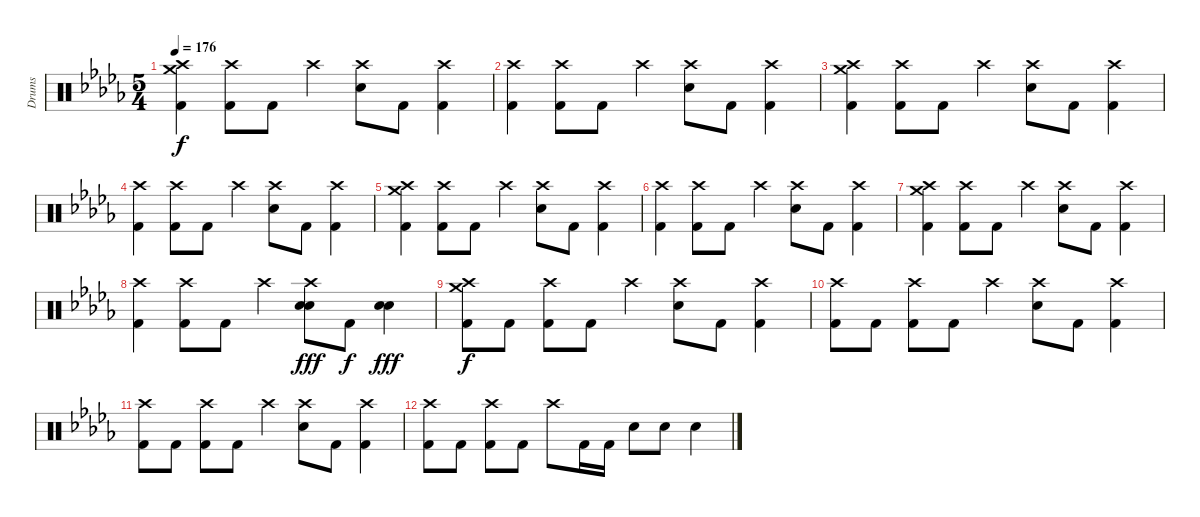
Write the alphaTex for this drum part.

\track ("Drums" "Drums") {instrument percussion}
\staff {score}
\articulation defaults
\ts (5 4)
\tempo 176
\clef neutral
\ks db
("Crash medium (hit)" "Crash high (hit)" "Kick (hit) 2").4{dy f} ("Crash high (hit)" "Kick (hit) 2").8 "Kick (hit) 2".8 "Crash high (hit)".4 ("Crash high (hit)" "Snare (hit) 2").8 "Kick (hit) 2".8 ("Crash high (hit)" "Kick (hit) 2").4 |
("Crash high (hit)" "Kick (hit) 2").4 ("Crash high (hit)" "Kick (hit) 2").8 "Kick (hit) 2".8 "Crash high (hit)".4 ("Crash high (hit)" "Snare (hit) 2").8 "Kick (hit) 2".8 ("Crash high (hit)" "Kick (hit) 2").4 |
("Crash medium (hit)" "Crash high (hit)" "Kick (hit) 2").4 ("Crash high (hit)" "Kick (hit) 2").8 "Kick (hit) 2".8 "Crash high (hit)".4 ("Crash high (hit)" "Snare (hit) 2").8 "Kick (hit) 2".8 ("Crash high (hit)" "Kick (hit) 2").4 |
("Crash high (hit)" "Kick (hit) 2").4 ("Crash high (hit)" "Kick (hit) 2").8 "Kick (hit) 2".8 "Crash high (hit)".4 ("Crash high (hit)" "Snare (hit) 2").8 "Kick (hit) 2".8 ("Crash high (hit)" "Kick (hit) 2").4 |
("Crash medium (hit)" "Crash high (hit)" "Kick (hit) 2").4 ("Crash high (hit)" "Kick (hit) 2").8 "Kick (hit) 2".8 "Crash high (hit)".4 ("Crash high (hit)" "Snare (hit) 2").8 "Kick (hit) 2".8 ("Crash high (hit)" "Kick (hit) 2").4 |
("Crash high (hit)" "Kick (hit) 2").4 ("Crash high (hit)" "Kick (hit) 2").8 "Kick (hit) 2".8 "Crash high (hit)".4 ("Crash high (hit)" "Snare (hit) 2").8 "Kick (hit) 2".8 ("Crash high (hit)" "Kick (hit) 2").4 |
("Crash medium (hit)" "Crash high (hit)" "Kick (hit) 2").4 ("Crash high (hit)" "Kick (hit) 2").8 "Kick (hit) 2".8 "Crash high (hit)".4 ("Crash high (hit)" "Snare (hit) 2").8 "Kick (hit) 2".8 ("Crash high (hit)" "Kick (hit) 2").4 |
("Crash high (hit)" "Kick (hit) 2").4 ("Crash high (hit)" "Kick (hit) 2").8 "Kick (hit) 2".8 "Crash high (hit)".4 ("Crash high (hit)" "Snare (hit) 2" "Electric Snare (hit)").8{dy fff} "Kick (hit) 2".8{dy f} ("Snare (hit) 2" "Electric Snare (hit)").4{dy fff} |
("Crash medium (hit)" "Crash high (hit)" "Kick (hit) 2").8{dy f} "Kick (hit) 2".8 ("Crash high (hit)" "Kick (hit) 2").8 "Kick (hit) 2".8 "Crash high (hit)".4 ("Crash high (hit)" "Snare (hit) 2").8 "Kick (hit) 2".8 ("Crash high (hit)" "Kick (hit) 2").4 |
("Crash high (hit)" "Kick (hit) 2").8 "Kick (hit) 2".8 ("Crash high (hit)" "Kick (hit) 2").8 "Kick (hit) 2".8 "Crash high (hit)".4 ("Crash high (hit)" "Snare (hit) 2").8 "Kick (hit) 2".8 ("Crash high (hit)" "Kick (hit) 2").4 |
("Crash high (hit)" "Kick (hit) 2").8 "Kick (hit) 2".8 ("Crash high (hit)" "Kick (hit) 2").8 "Kick (hit) 2".8 "Crash high (hit)".4 ("Crash high (hit)" "Snare (hit) 2").8 "Kick (hit) 2".8 ("Crash high (hit)" "Kick (hit) 2").4 |
("Crash high (hit)" "Kick (hit) 2").8 "Kick (hit) 2".8 ("Crash high (hit)" "Kick (hit) 2").8 "Kick (hit) 2".8 "Crash high (hit)".8 "Kick (hit) 2".16 "Kick (hit) 2".16 "Snare (hit) 2".8 "Snare (hit) 2".8 "Snare (hit) 2".4
